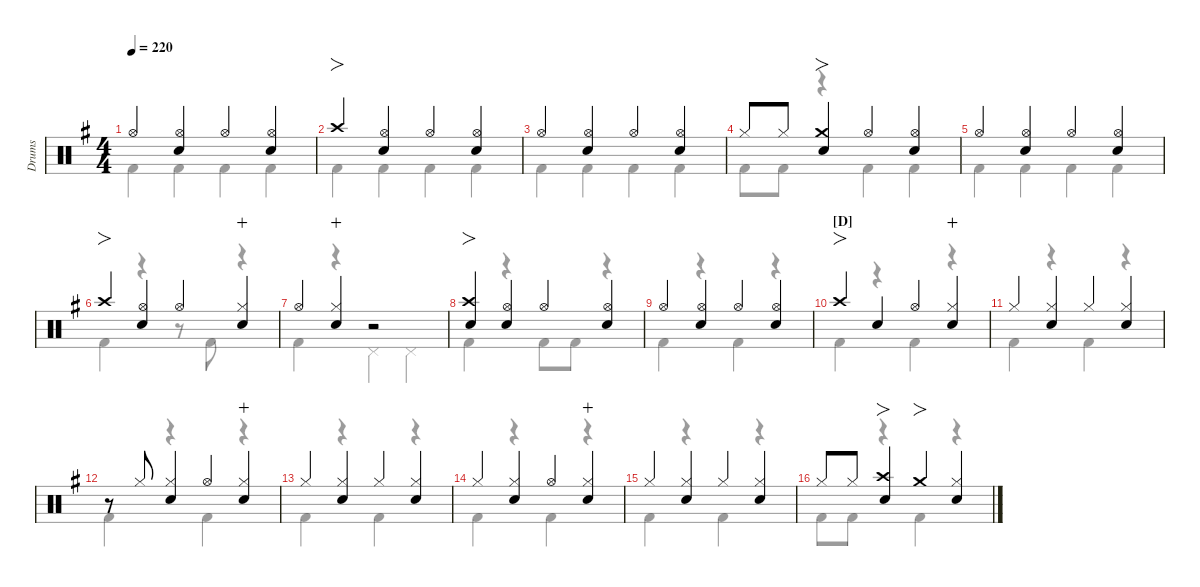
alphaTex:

\hideDynamics
\bracketExtendMode nobrackets
\multiBarRest
\otherSystemsTrackNameOrientation horizontal
\track ("Drums" "Drums") {defaultSystemsLayout 4 multiBarRest instrument percussion}
\staff {score}
\articulation defaults
\voice
\ts (4 4)
\tempo 220
\clef neutral
\scale
0.97879
\ks g "Hi-Hat (open)"{acc forcenatural}.4{dy f beam Up}
("Hi-Hat (open)"{acc forcenatural} "Snare (hit) 2"{acc forcenatural}).4{beam Up} "Hi-Hat (open)"{acc forcenatural}.4{beam Up} ("Hi-Hat (open)"{acc forcenatural} "Snare (hit) 2"{acc forcenatural}).4{beam Up} |
\scale
1.06363 "Crash high (hit)"{acc forcenatural}.4{fo beam Up} ("Hi-Hat (open)"{acc forcenatural} "Snare (hit) 2"{acc forcenatural}).4{beam Up} "Hi-Hat (open)"{acc forcenatural}.4{beam Up} ("Hi-Hat (open)"{acc forcenatural} "Snare (hit) 2"{acc forcenatural}).4{beam Up} |
\scale
0.97879 "Hi-Hat (open)"{acc forcenatural}.4{beam Up} ("Hi-Hat (open)"{acc forcenatural} "Snare (hit) 2"{acc forcenatural}).4{beam Up} "Hi-Hat (open)"{acc forcenatural}.4{beam Up} ("Hi-Hat (open)"{acc forcenatural} "Snare (hit) 2"{acc forcenatural}).4{beam Up} |
\scale
0.97879 "Hi-Hat (closed)"{acc forcenatural}.8{beam Up} "Hi-Hat (closed)"{acc forcenatural}.8{dy mf beam Up} ("Crash medium (hit)"{acc forcenatural} "Snare (hit) 2"{acc forcenatural}).4{fo dy f beam Up} "Hi-Hat (open)"{acc forcenatural}.4{beam Up} ("Hi-Hat (open)"{acc forcenatural} "Snare (hit) 2"{acc forcenatural}).4{beam Up} |
\scale
0.97879 "Hi-Hat (open)"{acc forcenatural}.4{beam Up} ("Hi-Hat (open)"{acc forcenatural} "Snare (hit) 2"{acc forcenatural}).4{beam Up} "Hi-Hat (open)"{acc forcenatural}.4{beam Up} ("Hi-Hat (open)"{acc forcenatural} "Snare (hit) 2"{acc forcenatural}).4{beam Up} |
\scale
1.05921 "Crash high (hit)"{acc forcenatural}.4{fo beam Up} ("Hi-Hat (open)"{acc forcenatural} "Snare (hit) 2"{acc forcenatural}).4{beam Up} "Hi-Hat (open)"{acc forcenatural}.4{beam Up} ("Hi-Hat (closed)"{acc forcenatural} "Snare (hit) 2"{acc forcenatural}).4{wahc beam Up} |
\scale
0.974368 "Hi-Hat (open)"{acc forcenatural}.4{beam Up} ("Hi-Hat (closed)"{acc forcenatural} "Snare (hit) 2"{acc forcenatural}).4{wahc beam Up} r.2{beam Up} |
\scale
0.974368 ("Crash high (hit)"{acc forcenatural} "Snare (hit) 2"{acc forcenatural}).4{fo beam Up} ("Hi-Hat (open)"{acc forcenatural} "Snare (hit) 2"{acc forcenatural}).4{beam Up} "Hi-Hat (open)"{acc forcenatural}.4{beam Up} ("Hi-Hat (open)"{acc forcenatural} "Snare (hit) 2"{acc forcenatural}).4{beam Up} |
\scale
0.992053 "Hi-Hat (open)"{acc forcenatural}.4{beam Up} ("Hi-Hat (open)"{acc forcenatural} "Snare (hit) 2"{acc forcenatural}).4{beam Up} "Hi-Hat (open)"{acc forcenatural}.4{beam Up} ("Hi-Hat (open)"{acc forcenatural} "Snare (hit) 2"{acc forcenatural}).4{beam Up} |
\section ("D" "")
\scale
1.06363 "Crash high (hit)"{acc forcenatural}.4{fo beam Up} "Snare (hit) 2"{acc forcenatural}.4{beam Up} "Hi-Hat (open)"{acc forcenatural}.4{beam Up} ("Hi-Hat (closed)"{acc forcenatural} "Snare (hit) 2"{acc forcenatural}).4{wahc beam Up} |
\scale
0.97879 "Hi-Hat (closed)"{acc forcenatural}.4{beam Up} ("Hi-Hat (closed)"{acc forcenatural} "Snare (hit) 2"{acc forcenatural}).4{beam Up} "Hi-Hat (closed)"{acc forcenatural}.4{beam Up} ("Hi-Hat (closed)"{acc forcenatural} "Snare (hit) 2"{acc forcenatural}).4{beam Up} |
\scale
0.97879 r.8{beam Up} "Hi-Hat (closed)"{acc forcenatural}.8{dy mf beam Up} ("Hi-Hat (closed)"{acc forcenatural} "Snare (hit) 2"{acc forcenatural}).4{dy f beam Up} "Hi-Hat (open)"{acc forcenatural}.4{beam Up} ("Hi-Hat (closed)"{acc forcenatural} "Snare (hit) 2"{acc forcenatural}).4{wahc beam Up} |
\scale
0.97879 "Hi-Hat (closed)"{acc forcenatural}.4{beam Up} ("Hi-Hat (closed)"{acc forcenatural} "Snare (hit) 2"{acc forcenatural}).4{beam Up} "Hi-Hat (closed)"{acc forcenatural}.4{beam Up} ("Hi-Hat (closed)"{acc forcenatural} "Snare (hit) 2"{acc forcenatural}).4{beam Up} |
\scale
1.06363 "Hi-Hat (closed)"{acc forcenatural}.4{beam Up} ("Hi-Hat (closed)"{acc forcenatural} "Snare (hit) 2"{acc forcenatural}).4{beam Up} "Hi-Hat (open)"{acc forcenatural}.4{beam Up} ("Hi-Hat (closed)"{acc forcenatural} "Snare (hit) 2"{acc forcenatural}).4{wahc beam Up} |
\scale
0.97879 "Hi-Hat (closed)"{acc forcenatural}.4{beam Up} ("Hi-Hat (closed)"{acc forcenatural} "Snare (hit) 2"{acc forcenatural}).4{beam Up} "Hi-Hat (closed)"{acc forcenatural}.4{beam Up} ("Hi-Hat (closed)"{acc forcenatural} "Snare (hit) 2"{acc forcenatural}).4{beam Up} |
\scale
0.97879 "Hi-Hat (closed)"{acc forcenatural}.8{beam Up} "Hi-Hat (closed)"{acc forcenatural}.8{dy mf beam Up} ("Crash high (hit)"{acc forcenatural} "Snare (hit) 2"{acc forcenatural}).4{fo dy f beam Up} "Crash medium (hit)"{acc forcenatural}.4{fo beam Up} ("Hi-Hat (closed)"{acc forcenatural} "Snare (hit) 2"{acc forcenatural}).4{beam Up}
\voice
\clef neutral
\ottava regular
\simile none
\scale
0.97879
\ks g "Kick (hit) 2"{acc forcenatural}.4{dy f beam Down} "Kick (hit) 2"{acc forcenatural}.4{beam Down} "Kick (hit) 2"{acc forcenatural}.4{beam Down} "Kick (hit) 2"{acc forcenatural}.4{beam Down}
|
\scale
1.06363 "Kick (hit) 2"{acc forcenatural}.4{beam Down} "Kick (hit) 2"{acc forcenatural}.4{beam Down} "Kick (hit) 2"{acc forcenatural}.4{beam Down} "Kick (hit) 2"{acc forcenatural}.4{beam Down} |
\scale
0.97879 "Kick (hit) 2"{acc forcenatural}.4{beam Down} "Kick (hit) 2"{acc forcenatural}.4{beam Down} "Kick (hit) 2"{acc forcenatural}.4{beam Down} "Kick (hit) 2"{acc forcenatural}.4{beam Down} |
\scale
0.97879 "Kick (hit) 2"{acc forcenatural}.8{beam Down} "Kick (hit) 2"{acc forcenatural}.8{beam Down} r.4{beam Down} "Kick (hit) 2"{acc forcenatural}.4{beam Down} "Kick (hit) 2"{acc forcenatural}.4{beam Down} |
\scale
0.97879 "Kick (hit) 2"{acc forcenatural}.4{beam Down} "Kick (hit) 2"{acc forcenatural}.4{beam Down} "Kick (hit) 2"{acc forcenatural}.4{beam Down} "Kick (hit) 2"{acc forcenatural}.4{beam Down} |
\scale
1.05921 "Kick (hit) 2"{acc forcenatural}.4{beam Down} r.4{beam Down} r.8{beam Down} "Kick (hit) 2"{acc forcenatural}.8{beam Down} r.4{beam Down} |
\scale
0.974368 "Kick (hit) 2"{acc forcenatural}.4{beam Down} r.4{beam Down} "Pedal Hi-Hat (hit)"{acc forcenatural}.4{beam Down} "Pedal Hi-Hat (hit)"{acc forcenatural}.4{beam Down} |
\scale
0.974368 "Kick (hit) 2"{acc forcenatural}.4{beam Down} r.4{beam Down} "Kick (hit) 2"{acc forcenatural}.8{beam Down} "Kick (hit) 2"{acc forcenatural}.8{beam Down} r.4{beam Down} |
\scale
0.992053 "Kick (hit) 2"{acc forcenatural}.4{beam Down} r.4{beam Down} "Kick (hit) 2"{acc forcenatural}.4{beam Down} r.4{beam Down} |
\scale
1.06363 "Kick (hit) 2"{acc forcenatural}.4{beam Down} r.4{beam Down} "Kick (hit) 2"{acc forcenatural}.4{beam Down} r.4{beam Down} |
\scale
0.97879 "Kick (hit) 2"{acc forcenatural}.4{beam Down} r.4{beam Down} "Kick (hit) 2"{acc forcenatural}.4{beam Down} r.4{beam Down} |
\scale
0.97879 "Kick (hit) 2"{acc forcenatural}.4{beam Down} r.4{beam Down} "Kick (hit) 2"{acc forcenatural}.4{beam Down} r.4{beam Down} |
\scale
0.97879 "Kick (hit) 2"{acc forcenatural}.4{beam Down} r.4{beam Down} "Kick (hit) 2"{acc forcenatural}.4{beam Down} r.4{beam Down} |
\scale
1.06363 "Kick (hit) 2"{acc forcenatural}.4{beam Down} r.4{beam Down} "Kick (hit) 2"{acc forcenatural}.4{beam Down} r.4{beam Down} |
\scale
0.97879 "Kick (hit) 2"{acc forcenatural}.4{beam Down} r.4{beam Down} "Kick (hit) 2"{acc forcenatural}.4{beam Down} r.4{beam Down} |
\scale
0.97879 "Kick (hit) 2"{acc forcenatural}.8{beam Down} "Kick (hit) 2"{acc forcenatural}.8{beam Down} r.4{beam Down} "Kick (hit) 2"{acc forcenatural}.4{beam Down} r.4{beam Down}
